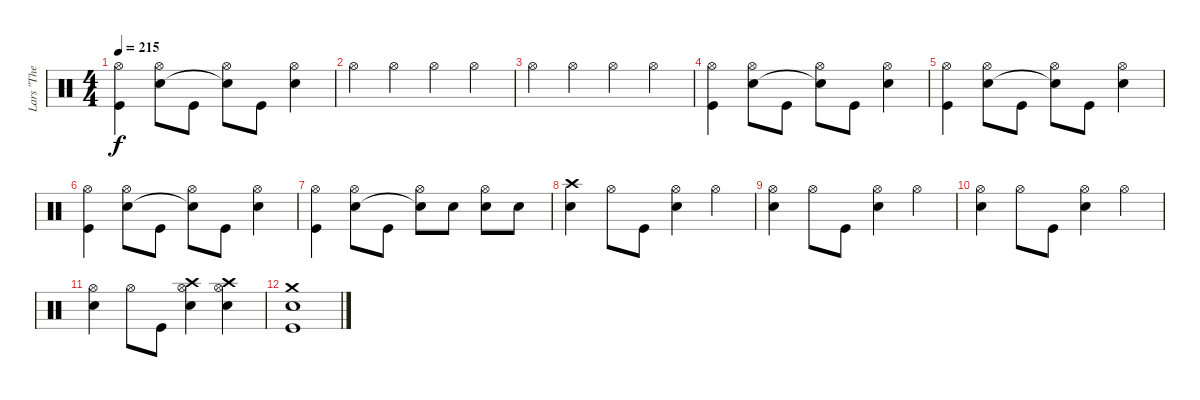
\track ("Lars \"The Antichrist\" Ulrich" "Lars \"The ") {instrument percussion}
\staff {score}
\articulation defaults
\ts (4 4)
\tempo 215
\clef neutral
\ks c
("Hi-Hat (open)" "Kick (hit)").4{dy f} ("Hi-Hat (open)" "Electric Snare (hit)").8 "Kick (hit)".8 ("Hi-Hat (open)" "Snare (hit)"{t}).8 "Kick (hit)".8 ("Hi-Hat (open)" "Electric Snare (hit)").4 |
"Hi-Hat (open)".4 "Hi-Hat (open)".4 "Hi-Hat (open)".4 "Hi-Hat (open)".4 |
"Hi-Hat (open)".4 "Hi-Hat (open)".4 "Hi-Hat (open)".4 "Hi-Hat (open)".4 |
("Hi-Hat (open)" "Kick (hit)").4 ("Hi-Hat (open)" "Electric Snare (hit)").8 "Kick (hit)".8 ("Hi-Hat (open)" "Snare (hit)"{t}).8 "Kick (hit)".8 ("Hi-Hat (open)" "Electric Snare (hit)").4 |
("Hi-Hat (open)" "Kick (hit)").4 ("Hi-Hat (open)" "Electric Snare (hit)").8 "Kick (hit)".8 ("Hi-Hat (open)" "Snare (hit)"{t}).8 "Kick (hit)".8 ("Hi-Hat (open)" "Electric Snare (hit)").4 |
("Hi-Hat (open)" "Kick (hit)").4 ("Hi-Hat (open)" "Electric Snare (hit)").8 "Kick (hit)".8 ("Hi-Hat (open)" "Snare (hit)"{t}).8 "Kick (hit)".8 ("Hi-Hat (open)" "Electric Snare (hit)").4 |
("Hi-Hat (open)" "Kick (hit)").4 ("Hi-Hat (open)" "Electric Snare (hit)").8 "Kick (hit)".8 ("Hi-Hat (open)" "Snare (hit)"{t}).8 "Electric Snare (hit)".8 ("Hi-Hat (open)" "Electric Snare (hit)").8 "Electric Snare (hit)".8 |
("Crash high (hit)" "Electric Snare (hit)").4 "Hi-Hat (open)".8 "Kick (hit)".8 ("Hi-Hat (open)" "Electric Snare (hit)").4 "Hi-Hat (open)".4 |
("Hi-Hat (open)" "Electric Snare (hit)").4 "Hi-Hat (open)".8 "Kick (hit)".8 ("Hi-Hat (open)" "Electric Snare (hit)").4 "Hi-Hat (open)".4 |
("Hi-Hat (open)" "Electric Snare (hit)").4 "Hi-Hat (open)".8 "Kick (hit)".8 ("Hi-Hat (open)" "Electric Snare (hit)").4 "Hi-Hat (open)".4 |
("Hi-Hat (open)" "Electric Snare (hit)").4 "Hi-Hat (open)".8 "Kick (hit)".8 ("Hi-Hat (open)" "Crash high (hit)" "Electric Snare (hit)").4 ("Hi-Hat (open)" "Crash high (hit)" "Electric Snare (hit)").4 |
("Crash medium (hit)" "Electric Snare (hit)" "Kick (hit)").1
